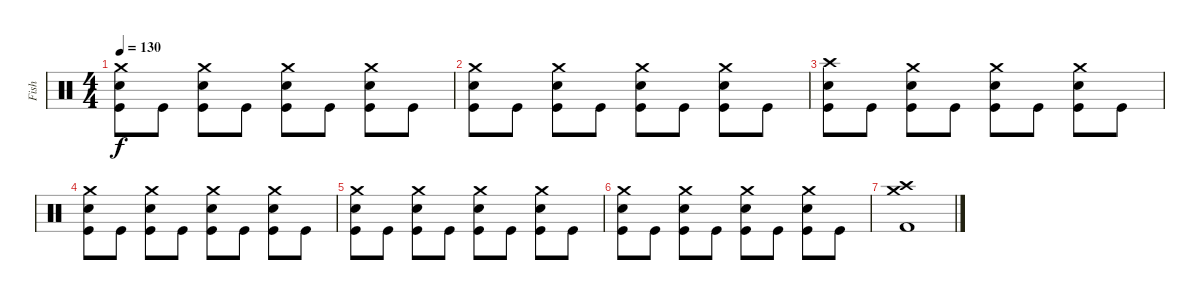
\track ("Fish" "Fish") {instrument percussion}
\staff {score}
\articulation defaults
\ts (4 4)
\tempo 130
\clef neutral
\ks c
("Crash medium (hit)" "Electric Snare (hit)" "Kick (hit)").8{dy f} "Kick (hit)".8 ("Crash medium (hit)" "Electric Snare (hit)" "Kick (hit)").8 "Kick (hit)".8 ("Crash medium (hit)" "Electric Snare (hit)" "Kick (hit)").8 "Kick (hit)".8 ("Crash medium (hit)" "Electric Snare (hit)" "Kick (hit)").8 "Kick (hit)".8 |
("Crash medium (hit)" "Electric Snare (hit)" "Kick (hit)").8 "Kick (hit)".8 ("Crash medium (hit)" "Electric Snare (hit)" "Kick (hit)").8 "Kick (hit)".8 ("Crash medium (hit)" "Electric Snare (hit)" "Kick (hit)").8 "Kick (hit)".8 ("Crash medium (hit)" "Electric Snare (hit)" "Kick (hit)").8 "Kick (hit)".8 |
("Crash high (hit)" "Electric Snare (hit)" "Kick (hit)").8 "Kick (hit)".8 ("Crash medium (hit)" "Electric Snare (hit)" "Kick (hit)").8 "Kick (hit)".8 ("Crash medium (hit)" "Electric Snare (hit)" "Kick (hit)").8 "Kick (hit)".8 ("Crash medium (hit)" "Electric Snare (hit)" "Kick (hit)").8 "Kick (hit)".8 |
("Crash medium (hit)" "Electric Snare (hit)" "Kick (hit)").8 "Kick (hit)".8 ("Crash medium (hit)" "Electric Snare (hit)" "Kick (hit)").8 "Kick (hit)".8 ("Crash medium (hit)" "Electric Snare (hit)" "Kick (hit)").8 "Kick (hit)".8 ("Crash medium (hit)" "Electric Snare (hit)" "Kick (hit)").8 "Kick (hit)".8 |
("Crash medium (hit)" "Electric Snare (hit)" "Kick (hit)").8 "Kick (hit)".8 ("Crash medium (hit)" "Electric Snare (hit)" "Kick (hit)").8 "Kick (hit)".8 ("Crash medium (hit)" "Electric Snare (hit)" "Kick (hit)").8 "Kick (hit)".8 ("Crash medium (hit)" "Electric Snare (hit)" "Kick (hit)").8 "Kick (hit)".8 |
("Crash medium (hit)" "Electric Snare (hit)" "Kick (hit)").8 "Kick (hit)".8 ("Crash medium (hit)" "Electric Snare (hit)" "Kick (hit)").8 "Kick (hit)".8 ("Crash medium (hit)" "Electric Snare (hit)" "Kick (hit)").8 "Kick (hit)".8 ("Crash medium (hit)" "Electric Snare (hit)" "Kick (hit)").8 "Kick (hit)".8 |
("Crash high (hit)" "Crash medium (hit)" "Kick (hit) 2").1
